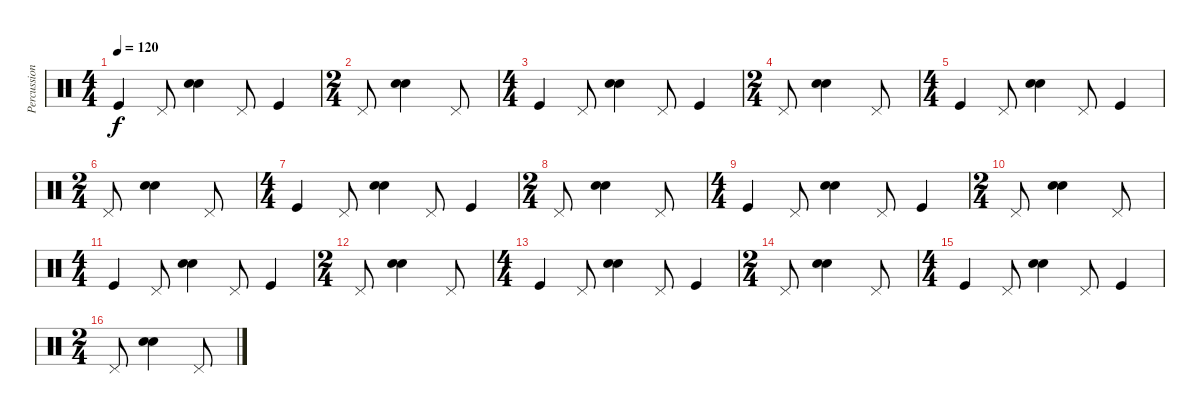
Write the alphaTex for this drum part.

\track ("Percussions" "Percussion") {instrument percussion}
\staff {score}
\articulation defaults
\ts (4 4)
\tempo 120
\clef neutral
\ks c "Kick (hit)".4{dy f} "Pedal Hi-Hat (hit)".8
("Snare (hit) 2" "Electric Snare (hit)").4{bu 240} "Pedal Hi-Hat (hit)".8 "Kick (hit)".4 |
\ts (2 4)
"Pedal Hi-Hat (hit)".8 ("Snare (hit) 2" "Electric Snare (hit)").4{bu 240} "Pedal Hi-Hat (hit)".8 |
\ts (4 4)
"Kick (hit)".4 "Pedal Hi-Hat (hit)".8 ("Snare (hit) 2" "Electric Snare (hit)").4{bu 240} "Pedal Hi-Hat (hit)".8 "Kick (hit)".4 |
\ts (2 4)
"Pedal Hi-Hat (hit)".8 ("Snare (hit) 2" "Electric Snare (hit)").4{bu 240} "Pedal Hi-Hat (hit)".8 |
\ts (4 4)
"Kick (hit)".4 "Pedal Hi-Hat (hit)".8 ("Snare (hit) 2" "Electric Snare (hit)").4{bu 240} "Pedal Hi-Hat (hit)".8 "Kick (hit)".4 |
\ts (2 4)
"Pedal Hi-Hat (hit)".8 ("Snare (hit) 2" "Electric Snare (hit)").4{bu 240} "Pedal Hi-Hat (hit)".8 |
\ts (4 4)
"Kick (hit)".4 "Pedal Hi-Hat (hit)".8 ("Snare (hit) 2" "Electric Snare (hit)").4{bu 240} "Pedal Hi-Hat (hit)".8 "Kick (hit)".4 |
\ts (2 4)
"Pedal Hi-Hat (hit)".8 ("Snare (hit) 2" "Electric Snare (hit)").4{bu 240} "Pedal Hi-Hat (hit)".8 |
\ts (4 4)
"Kick (hit)".4 "Pedal Hi-Hat (hit)".8 ("Snare (hit) 2" "Electric Snare (hit)").4{bu 240} "Pedal Hi-Hat (hit)".8 "Kick (hit)".4 |
\ts (2 4)
"Pedal Hi-Hat (hit)".8 ("Snare (hit) 2" "Electric Snare (hit)").4{bu 240} "Pedal Hi-Hat (hit)".8 |
\ts (4 4)
"Kick (hit)".4 "Pedal Hi-Hat (hit)".8 ("Snare (hit) 2" "Electric Snare (hit)").4{bu 240} "Pedal Hi-Hat (hit)".8 "Kick (hit)".4 |
\ts (2 4)
"Pedal Hi-Hat (hit)".8 ("Snare (hit) 2" "Electric Snare (hit)").4{bu 240} "Pedal Hi-Hat (hit)".8 |
\ts (4 4)
"Kick (hit)".4 "Pedal Hi-Hat (hit)".8 ("Snare (hit) 2" "Electric Snare (hit)").4{bu 240} "Pedal Hi-Hat (hit)".8 "Kick (hit)".4 |
\ts (2 4)
"Pedal Hi-Hat (hit)".8 ("Snare (hit) 2" "Electric Snare (hit)").4{bu 240} "Pedal Hi-Hat (hit)".8 |
\ts (4 4)
"Kick (hit)".4 "Pedal Hi-Hat (hit)".8 ("Snare (hit) 2" "Electric Snare (hit)").4{bu 240} "Pedal Hi-Hat (hit)".8 "Kick (hit)".4 |
\ts (2 4)
"Pedal Hi-Hat (hit)".8 ("Snare (hit) 2" "Electric Snare (hit)").4{bu 240} "Pedal Hi-Hat (hit)".8
